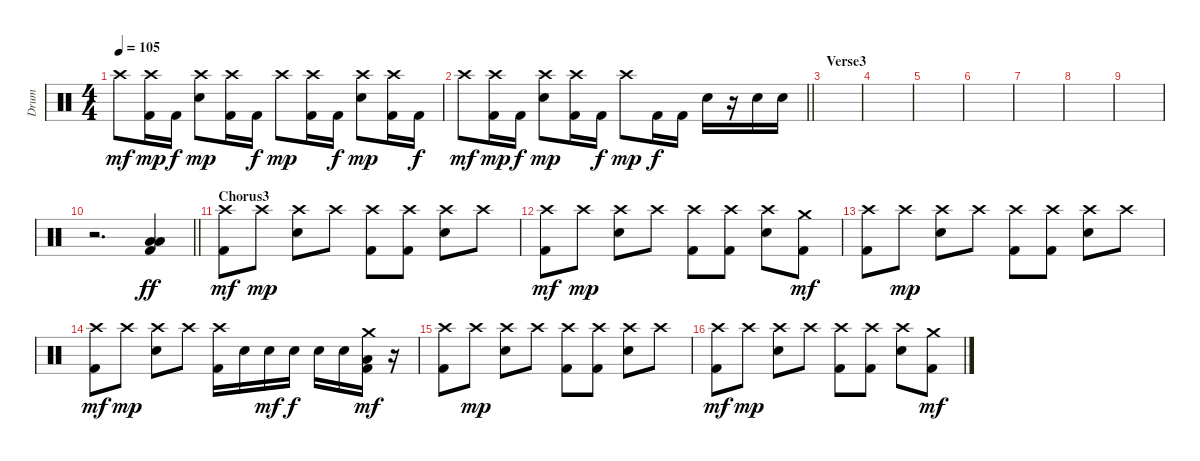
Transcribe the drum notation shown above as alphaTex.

\track ("Drum" "Drum") {instrument percussion}
\staff {score}
\articulation defaults
\ts (4 4)
\tempo 105
\clef neutral
\ks c "Crash high (hit)".8{dy mf}
("Crash high (hit)" "Kick (hit) 2").16{dy mp} "Kick (hit) 2".16{dy f} ("Crash high (hit)" "Electric Snare (hit)").8{dy mp} ("Crash high (hit)" "Kick (hit) 2").16 "Kick (hit) 2".16{dy f} "Crash high (hit)".8{dy mp} ("Crash high (hit)" "Kick (hit) 2").16 "Kick (hit) 2".16{dy f} ("Crash high (hit)" "Electric Snare (hit)").8{dy mp} ("Crash high (hit)" "Kick (hit) 2").16 "Kick (hit) 2".16{dy f} |
\barLineRight lightlight "Crash high (hit)".8{dy mf}
("Crash high (hit)" "Kick (hit) 2").16{dy mp} "Kick (hit) 2".16{dy f} ("Crash high (hit)" "Electric Snare (hit)").8{dy mp} ("Crash high (hit)" "Kick (hit) 2").16 "Kick (hit) 2".16{dy f} "Crash high (hit)".8{dy mp} "Kick (hit) 2".16{dy f} "Kick (hit) 2".16 "Electric Snare (hit)".16 r.16 "Electric Snare (hit)".16 "Electric Snare (hit)".16 |
\section ("" "Verse3")
|
|
|
|
|
|
|
\barLineRight lightlight
r.2{d} ("Low Tom (hit)" "Low Floor Tom (hit)" "Kick (hit) 2").4{dy ff} |
\section ("" "Chorus3")
("Crash high (hit)" "Kick (hit) 2").8{dy mf} "Crash high (hit)".8{dy mp} ("Crash high (hit)" "Electric Snare (hit)").8 "Crash high (hit)".8 ("Crash high (hit)" "Kick (hit) 2").8 ("Crash high (hit)" "Kick (hit) 2").8 ("Crash high (hit)" "Electric Snare (hit)").8 "Crash high (hit)".8 |
("Crash high (hit)" "Kick (hit) 2").8{dy mf} "Crash high (hit)".8{dy mp} ("Crash high (hit)" "Electric Snare (hit)").8 "Crash high (hit)".8 ("Crash high (hit)" "Kick (hit) 2").8 ("Crash high (hit)" "Kick (hit) 2").8 ("Crash high (hit)" "Electric Snare (hit)").8 ("Crash medium (hit)" "Kick (hit) 2").8{dy mf} |
("Crash high (hit)" "Kick (hit) 2").8 "Crash high (hit)".8{dy mp} ("Crash high (hit)" "Electric Snare (hit)").8 "Crash high (hit)".8 ("Crash high (hit)" "Kick (hit) 2").8 ("Crash high (hit)" "Kick (hit) 2").8 ("Crash high (hit)" "Electric Snare (hit)").8 "Crash high (hit)".8 |
("Crash high (hit)" "Kick (hit) 2").8{dy mf} "Crash high (hit)".8{dy mp} ("Crash high (hit)" "Electric Snare (hit)").8 "Crash high (hit)".8 ("Crash high (hit)" "Kick (hit) 2").16 "Electric Snare (hit)".16 "Electric Snare (hit)".16{dy mf} "Electric Snare (hit)".16{dy f} "Electric Snare (hit)".16 "Electric Snare (hit)".16 ("Crash medium (hit)" "Low Floor Tom (hit)" "Kick (hit) 2").16{dy mf} r.16 |
("Crash high (hit)" "Kick (hit) 2").8 "Crash high (hit)".8{dy mp} ("Crash high (hit)" "Electric Snare (hit)").8 "Crash high (hit)".8 ("Crash high (hit)" "Kick (hit) 2").8 ("Crash high (hit)" "Kick (hit) 2").8 ("Crash high (hit)" "Electric Snare (hit)").8 "Crash high (hit)".8 |
("Crash high (hit)" "Kick (hit) 2").8{dy mf} "Crash high (hit)".8{dy mp} ("Crash high (hit)" "Electric Snare (hit)").8 "Crash high (hit)".8 ("Crash high (hit)" "Kick (hit) 2").8 ("Crash high (hit)" "Kick (hit) 2").8 ("Crash high (hit)" "Electric Snare (hit)").8 ("Crash medium (hit)" "Kick (hit) 2").8{dy mf}
